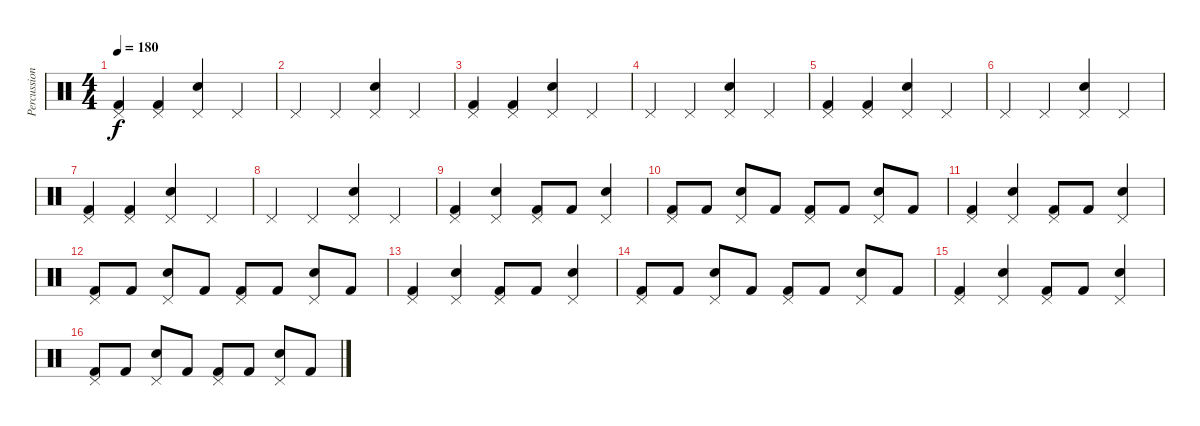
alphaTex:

\track ("Percussion" "Percussion") {instrument percussion}
\staff {score}
\articulation defaults
\ts (4 4)
\tempo 180
\clef neutral
\ks c
("Kick (hit) 2" "Pedal Hi-Hat (hit)").4{dy f} ("Kick (hit) 2" "Pedal Hi-Hat (hit)").4 ("Electric Snare (hit)" "Pedal Hi-Hat (hit)").4 "Pedal Hi-Hat (hit)".4 |
"Pedal Hi-Hat (hit)".4 "Pedal Hi-Hat (hit)".4 ("Electric Snare (hit)" "Pedal Hi-Hat (hit)").4 "Pedal Hi-Hat (hit)".4 |
("Kick (hit) 2" "Pedal Hi-Hat (hit)").4 ("Kick (hit) 2" "Pedal Hi-Hat (hit)").4 ("Electric Snare (hit)" "Pedal Hi-Hat (hit)").4 "Pedal Hi-Hat (hit)".4 |
"Pedal Hi-Hat (hit)".4 "Pedal Hi-Hat (hit)".4 ("Electric Snare (hit)" "Pedal Hi-Hat (hit)").4 "Pedal Hi-Hat (hit)".4 |
("Kick (hit) 2" "Pedal Hi-Hat (hit)").4 ("Kick (hit) 2" "Pedal Hi-Hat (hit)").4 ("Electric Snare (hit)" "Pedal Hi-Hat (hit)").4 "Pedal Hi-Hat (hit)".4 |
"Pedal Hi-Hat (hit)".4 "Pedal Hi-Hat (hit)".4 ("Electric Snare (hit)" "Pedal Hi-Hat (hit)").4 "Pedal Hi-Hat (hit)".4 |
("Kick (hit) 2" "Pedal Hi-Hat (hit)").4 ("Kick (hit) 2" "Pedal Hi-Hat (hit)").4 ("Electric Snare (hit)" "Pedal Hi-Hat (hit)").4 "Pedal Hi-Hat (hit)".4 |
"Pedal Hi-Hat (hit)".4 "Pedal Hi-Hat (hit)".4 ("Electric Snare (hit)" "Pedal Hi-Hat (hit)").4 "Pedal Hi-Hat (hit)".4 |
("Kick (hit) 2" "Pedal Hi-Hat (hit)").4 ("Electric Snare (hit)" "Pedal Hi-Hat (hit)").4 ("Kick (hit) 2" "Pedal Hi-Hat (hit)").8 "Kick (hit) 2".8 ("Electric Snare (hit)" "Pedal Hi-Hat (hit)").4 |
("Kick (hit) 2" "Pedal Hi-Hat (hit)").8 "Kick (hit) 2".8 ("Electric Snare (hit)" "Pedal Hi-Hat (hit)").8 "Kick (hit) 2".8 ("Kick (hit) 2" "Pedal Hi-Hat (hit)").8 "Kick (hit) 2".8 ("Electric Snare (hit)" "Pedal Hi-Hat (hit)").8 "Kick (hit) 2".8 |
("Kick (hit) 2" "Pedal Hi-Hat (hit)").4 ("Electric Snare (hit)" "Pedal Hi-Hat (hit)").4 ("Kick (hit) 2" "Pedal Hi-Hat (hit)").8 "Kick (hit) 2".8 ("Electric Snare (hit)" "Pedal Hi-Hat (hit)").4 |
("Kick (hit) 2" "Pedal Hi-Hat (hit)").8 "Kick (hit) 2".8 ("Electric Snare (hit)" "Pedal Hi-Hat (hit)").8 "Kick (hit) 2".8 ("Kick (hit) 2" "Pedal Hi-Hat (hit)").8 "Kick (hit) 2".8 ("Electric Snare (hit)" "Pedal Hi-Hat (hit)").8 "Kick (hit) 2".8 |
("Kick (hit) 2" "Pedal Hi-Hat (hit)").4 ("Electric Snare (hit)" "Pedal Hi-Hat (hit)").4 ("Kick (hit) 2" "Pedal Hi-Hat (hit)").8 "Kick (hit) 2".8 ("Electric Snare (hit)" "Pedal Hi-Hat (hit)").4 |
("Kick (hit) 2" "Pedal Hi-Hat (hit)").8 "Kick (hit) 2".8 ("Electric Snare (hit)" "Pedal Hi-Hat (hit)").8 "Kick (hit) 2".8 ("Kick (hit) 2" "Pedal Hi-Hat (hit)").8 "Kick (hit) 2".8 ("Electric Snare (hit)" "Pedal Hi-Hat (hit)").8 "Kick (hit) 2".8 |
("Kick (hit) 2" "Pedal Hi-Hat (hit)").4 ("Electric Snare (hit)" "Pedal Hi-Hat (hit)").4 ("Kick (hit) 2" "Pedal Hi-Hat (hit)").8 "Kick (hit) 2".8 ("Electric Snare (hit)" "Pedal Hi-Hat (hit)").4 |
("Kick (hit) 2" "Pedal Hi-Hat (hit)").8 "Kick (hit) 2".8 ("Electric Snare (hit)" "Pedal Hi-Hat (hit)").8 "Kick (hit) 2".8 ("Kick (hit) 2" "Pedal Hi-Hat (hit)").8 "Kick (hit) 2".8 ("Electric Snare (hit)" "Pedal Hi-Hat (hit)").8 "Kick (hit) 2".8
